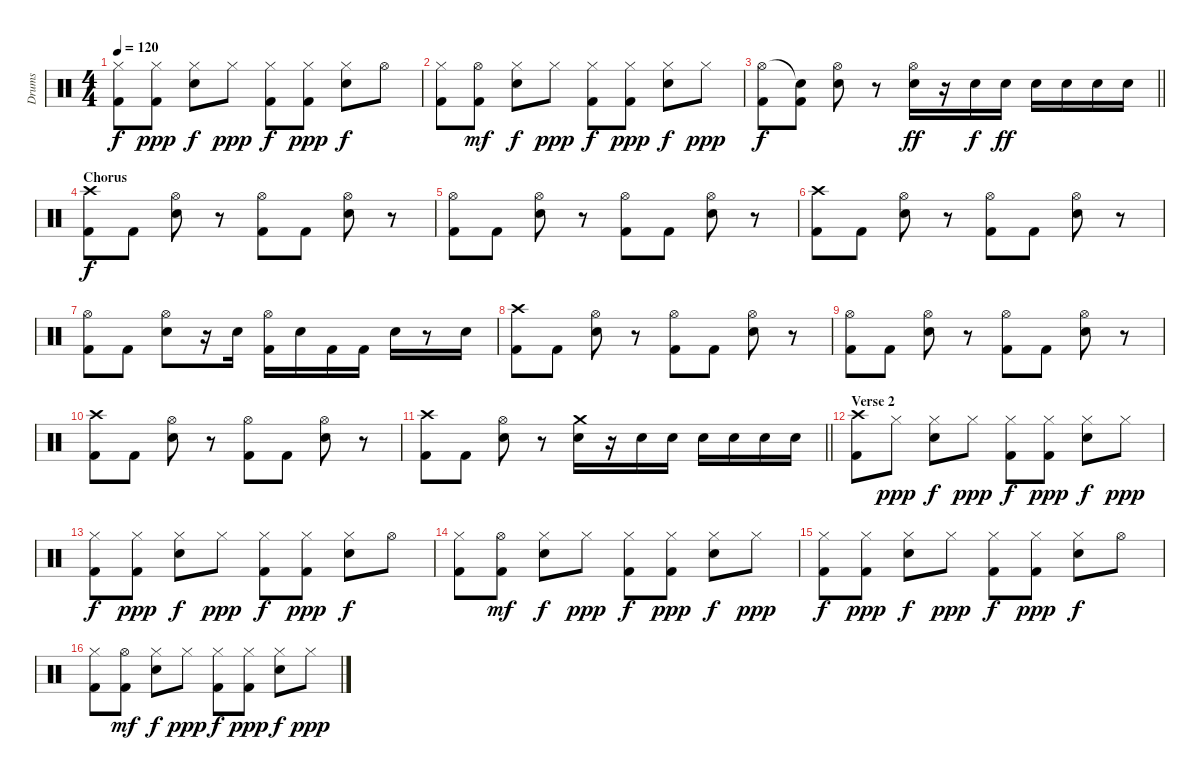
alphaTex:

\track ("Drums" "Drums") {instrument percussion}
\staff {score}
\articulation defaults
\ts (4 4)
\tempo 120
\clef neutral
\ks c
("Hi-Hat (closed)" "Kick (hit) 2").8{dy f} ("Hi-Hat (closed)" "Kick (hit) 2").8{dy ppp} ("Hi-Hat (closed)" "Snare (hit) 2").8{dy f} "Hi-Hat (closed)".8{dy ppp} ("Hi-Hat (closed)" "Kick (hit) 2").8{dy f} ("Hi-Hat (closed)" "Kick (hit) 2").8{dy ppp} ("Hi-Hat (closed)" "Snare (hit) 2").8{dy f} "Hi-Hat (open)".8 |
("Hi-Hat (closed)" "Kick (hit) 2").8 ("Hi-Hat (open)" "Kick (hit) 2").8{dy mf} ("Hi-Hat (closed)" "Snare (hit) 2").8{dy f} "Hi-Hat (closed)".8{dy ppp} ("Hi-Hat (closed)" "Kick (hit) 2").8{dy f} ("Hi-Hat (closed)" "Kick (hit) 2").8{dy ppp} ("Hi-Hat (closed)" "Snare (hit) 2").8{dy f} "Hi-Hat (closed)".8{dy ppp} |
\barLineRight lightlight
("Hi-Hat (open)" "Kick (hit) 2").8{dy f} ("Snare (hit)"{t} "Kick (hit) 2").8 ("Hi-Hat (open)" "Snare (hit) 2").8 r.8 ("Hi-Hat (open)" "Snare (hit) 2").16{dy ff} r.16 "Snare (hit) 2".16{dy f} "Snare (hit) 2".16{dy ff} "Snare (hit) 2".16 "Snare (hit) 2".16 "Snare (hit) 2".16 "Snare (hit) 2".16 |
\section ("" "Chorus")
("Crash high (hit)" "Kick (hit) 2").8{dy f} "Kick (hit) 2".8 ("Hi-Hat (open)" "Snare (hit) 2").8 r.8 ("Hi-Hat (open)" "Kick (hit) 2").8 "Kick (hit) 2".8 ("Hi-Hat (open)" "Snare (hit) 2").8 r.8 |
("Hi-Hat (open)" "Kick (hit) 2").8 "Kick (hit) 2".8 ("Hi-Hat (open)" "Snare (hit) 2").8 r.8 ("Hi-Hat (open)" "Kick (hit) 2").8 "Kick (hit) 2".8 ("Hi-Hat (open)" "Snare (hit) 2").8 r.8 |
("Crash high (hit)" "Kick (hit) 2").8 "Kick (hit) 2".8 ("Hi-Hat (open)" "Snare (hit) 2").8 r.8 ("Hi-Hat (open)" "Kick (hit) 2").8 "Kick (hit) 2".8 ("Hi-Hat (open)" "Snare (hit) 2").8 r.8 |
("Hi-Hat (open)" "Kick (hit) 2").8 "Kick (hit) 2".8 ("Hi-Hat (open)" "Snare (hit) 2").8 r.16 "Snare (hit) 2".16 ("Hi-Hat (open)" "Kick (hit) 2").16 "Snare (hit) 2".16 "Kick (hit) 2".16 "Kick (hit) 2".16 "Snare (hit) 2".16 r.8 "Snare (hit) 2".16 |
("Crash high (hit)" "Kick (hit) 2").8 "Kick (hit) 2".8 ("Hi-Hat (open)" "Snare (hit) 2").8 r.8 ("Hi-Hat (open)" "Kick (hit) 2").8 "Kick (hit) 2".8 ("Hi-Hat (open)" "Snare (hit) 2").8 r.8 |
("Hi-Hat (open)" "Kick (hit) 2").8 "Kick (hit) 2".8 ("Hi-Hat (open)" "Snare (hit) 2").8 r.8 ("Hi-Hat (open)" "Kick (hit) 2").8 "Kick (hit) 2".8 ("Hi-Hat (open)" "Snare (hit) 2").8 r.8 |
("Crash high (hit)" "Kick (hit) 2").8 "Kick (hit) 2".8 ("Hi-Hat (open)" "Snare (hit) 2").8 r.8 ("Hi-Hat (open)" "Kick (hit) 2").8 "Kick (hit) 2".8 ("Hi-Hat (open)" "Snare (hit) 2").8 r.8 |
\barLineRight lightlight
("Crash high (hit)" "Kick (hit) 2").8 "Kick (hit) 2".8 ("Hi-Hat (open)" "Snare (hit) 2").8 r.8 ("Crash medium (hit)" "Snare (hit) 2").16 r.16 "Snare (hit) 2".16 "Snare (hit) 2".16 "Snare (hit) 2".16 "Snare (hit) 2".16 "Snare (hit) 2".16 "Snare (hit) 2".16 |
\section ("" "Verse 2")
("Crash high (hit)" "Kick (hit) 2").8 "Hi-Hat (closed)".8{dy ppp} ("Hi-Hat (closed)" "Snare (hit) 2").8{dy f} "Hi-Hat (closed)".8{dy ppp} ("Hi-Hat (closed)" "Kick (hit) 2").8{dy f} ("Hi-Hat (closed)" "Kick (hit) 2").8{dy ppp} ("Hi-Hat (closed)" "Snare (hit) 2").8{dy f} "Hi-Hat (closed)".8{dy ppp} |
("Hi-Hat (closed)" "Kick (hit) 2").8{dy f} ("Hi-Hat (closed)" "Kick (hit) 2").8{dy ppp} ("Hi-Hat (closed)" "Snare (hit) 2").8{dy f} "Hi-Hat (closed)".8{dy ppp} ("Hi-Hat (closed)" "Kick (hit) 2").8{dy f} ("Hi-Hat (closed)" "Kick (hit) 2").8{dy ppp} ("Hi-Hat (closed)" "Snare (hit) 2").8{dy f} "Hi-Hat (open)".8 |
("Hi-Hat (closed)" "Kick (hit) 2").8 ("Hi-Hat (open)" "Kick (hit) 2").8{dy mf} ("Hi-Hat (closed)" "Snare (hit) 2").8{dy f} "Hi-Hat (closed)".8{dy ppp} ("Hi-Hat (closed)" "Kick (hit) 2").8{dy f} ("Hi-Hat (closed)" "Kick (hit) 2").8{dy ppp} ("Hi-Hat (closed)" "Snare (hit) 2").8{dy f} "Hi-Hat (closed)".8{dy ppp} |
("Hi-Hat (closed)" "Kick (hit) 2").8{dy f} ("Hi-Hat (closed)" "Kick (hit) 2").8{dy ppp} ("Hi-Hat (closed)" "Snare (hit) 2").8{dy f} "Hi-Hat (closed)".8{dy ppp} ("Hi-Hat (closed)" "Kick (hit) 2").8{dy f} ("Hi-Hat (closed)" "Kick (hit) 2").8{dy ppp} ("Hi-Hat (closed)" "Snare (hit) 2").8{dy f} "Hi-Hat (open)".8 |
("Hi-Hat (closed)" "Kick (hit) 2").8 ("Hi-Hat (open)" "Kick (hit) 2").8{dy mf} ("Hi-Hat (closed)" "Snare (hit) 2").8{dy f} "Hi-Hat (closed)".8{dy ppp} ("Hi-Hat (closed)" "Kick (hit) 2").8{dy f} ("Hi-Hat (closed)" "Kick (hit) 2").8{dy ppp} ("Hi-Hat (closed)" "Snare (hit) 2").8{dy f} "Hi-Hat (closed)".8{dy ppp}
